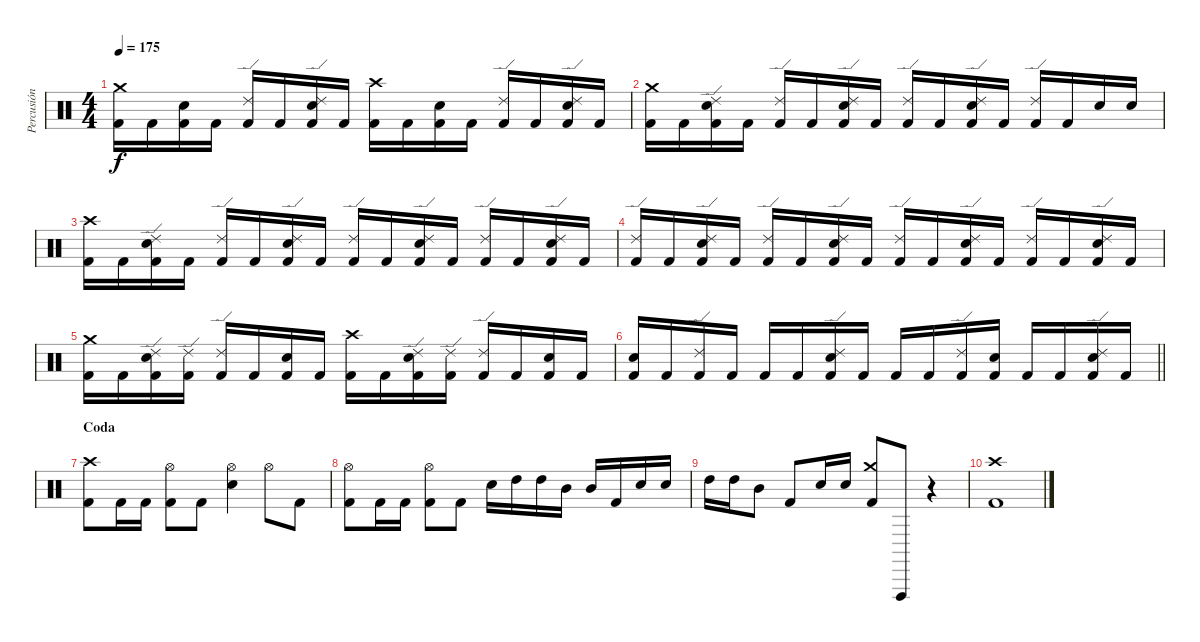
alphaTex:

\track ("Percusión" "Percusión") {instrument percussion}
\staff {score}
\articulation defaults
\ts (4 4)
\tempo 175
\clef neutral
\ks c
("Crash medium (hit)" "Kick (hit) 2").16{dy f} "Kick (hit) 2".16 ("Snare (hit) 2" "Kick (hit) 2").16 "Kick (hit) 2".16 ("Ride (edge) 2" "Kick (hit) 2").16 "Kick (hit) 2".16 ("Ride (edge) 2" "Snare (hit) 2" "Kick (hit) 2").16 "Kick (hit) 2".16 ("Crash high (hit)" "Kick (hit) 2").16 "Kick (hit) 2".16 ("Snare (hit) 2" "Kick (hit) 2").16 "Kick (hit) 2".16 ("Ride (edge) 2" "Kick (hit) 2").16 "Kick (hit) 2".16 ("Ride (edge) 2" "Snare (hit) 2" "Kick (hit) 2").16 "Kick (hit) 2".16 |
("Crash medium (hit)" "Kick (hit) 2").16 "Kick (hit) 2".16 ("Ride (edge) 2" "Snare (hit) 2" "Kick (hit) 2").16 "Kick (hit) 2".16 ("Ride (edge) 2" "Kick (hit) 2").16 "Kick (hit) 2".16 ("Ride (edge) 2" "Snare (hit) 2" "Kick (hit) 2").16 "Kick (hit) 2".16 ("Ride (edge) 2" "Kick (hit) 2").16 "Kick (hit) 2".16 ("Ride (edge) 2" "Snare (hit) 2" "Kick (hit) 2").16 "Kick (hit) 2".16 ("Ride (edge) 2" "Kick (hit) 2").16 "Kick (hit) 2".16 "Snare (hit) 2".16 "Snare (hit) 2".16 |
("Crash high (hit)" "Kick (hit) 2").16 "Kick (hit) 2".16 ("Ride (edge) 2" "Snare (hit) 2" "Kick (hit) 2").16 "Kick (hit) 2".16 ("Ride (edge) 2" "Kick (hit) 2").16 "Kick (hit) 2".16 ("Ride (edge) 2" "Snare (hit) 2" "Kick (hit) 2").16 "Kick (hit) 2".16 ("Ride (edge) 2" "Kick (hit) 2").16 "Kick (hit) 2".16 ("Ride (edge) 2" "Snare (hit) 2" "Kick (hit) 2").16 "Kick (hit) 2".16 ("Ride (edge) 2" "Kick (hit) 2").16 "Kick (hit) 2".16 ("Ride (edge) 2" "Snare (hit) 2" "Kick (hit) 2").16 "Kick (hit) 2".16 |
("Ride (edge) 2" "Kick (hit) 2").16 "Kick (hit) 2".16 ("Ride (edge) 2" "Snare (hit) 2" "Kick (hit) 2").16 "Kick (hit) 2".16 ("Ride (edge) 2" "Kick (hit) 2").16 "Kick (hit) 2".16 ("Ride (edge) 2" "Snare (hit) 2" "Kick (hit) 2").16 "Kick (hit) 2".16 ("Ride (edge) 2" "Kick (hit) 2").16 "Kick (hit) 2".16 ("Ride (edge) 2" "Snare (hit) 2" "Kick (hit) 2").16 "Kick (hit) 2".16 ("Ride (edge) 2" "Kick (hit) 2").16 "Kick (hit) 2".16 ("Ride (edge) 2" "Snare (hit) 2" "Kick (hit) 2").16 "Kick (hit) 2".16 |
("Crash medium (hit)" "Kick (hit) 2").16 "Kick (hit) 2".16 ("Ride (edge) 2" "Snare (hit) 2" "Kick (hit) 2").16 ("Ride (edge) 2" "Kick (hit) 2").16 ("Ride (edge) 2" "Kick (hit) 2").16 "Kick (hit) 2".16 ("Snare (hit) 2" "Kick (hit) 2").16 "Kick (hit) 2".16 ("Crash high (hit)" "Kick (hit) 2").16 "Kick (hit) 2".16 ("Ride (edge) 2" "Snare (hit) 2" "Kick (hit) 2").16 ("Ride (edge) 2" "Kick (hit) 2").16 ("Ride (edge) 2" "Kick (hit) 2").16 "Kick (hit) 2".16 ("Snare (hit) 2" "Kick (hit) 2").16 "Kick (hit) 2".16 |
\barLineRight lightlight
("Snare (hit) 2" "Kick (hit) 2").16 "Kick (hit) 2".16 ("Ride (edge) 2" "Kick (hit) 2").16 "Kick (hit) 2".16 "Kick (hit) 2".16 "Kick (hit) 2".16 ("Ride (edge) 2" "Snare (hit) 2" "Kick (hit) 2").16 "Kick (hit) 2".16 "Kick (hit) 2".16 "Kick (hit) 2".16 ("Ride (edge) 2" "Kick (hit) 2").16 ("Snare (hit) 2" "Kick (hit) 2").16 "Kick (hit) 2".16 "Kick (hit) 2".16 ("Ride (edge) 2" "Snare (hit) 2" "Kick (hit) 2").16 "Kick (hit) 2".16 |
\section ("" "Coda")
("Crash high (hit)" "Kick (hit) 2").8 "Kick (hit) 2".16 "Kick (hit) 2".16 ("Hi-Hat (open)" "Kick (hit) 2").8 "Kick (hit) 2".8 ("Hi-Hat (open)" "Snare (hit) 2").4 "Hi-Hat (open)".8 "Kick (hit) 2".8 |
("Hi-Hat (open)" "Kick (hit) 2").8 "Kick (hit) 2".16 "Kick (hit) 2".16 ("Hi-Hat (open)" "Kick (hit) 2").8 "Kick (hit) 2".8 "Snare (hit) 2".16 "High Tom (hit)".16 "High Tom (hit)".16 "Mid Tom (hit)".16 "Mid Tom (hit)".16 "Kick (hit) 2".16 "Snare (hit) 2".16 "Snare (hit) 2".16 |
"High Tom (hit)".16 "High Tom (hit)".16 "Mid Tom (hit)".8 "Kick (hit) 2".8 "Snare (hit) 2".16 "Snare (hit) 2".16 ("Crash medium (hit)" "Kick (hit) 2").8 "Vibraslap (hit)".8 r.4 |
("Crash high (hit)" "Kick (hit) 2").1
